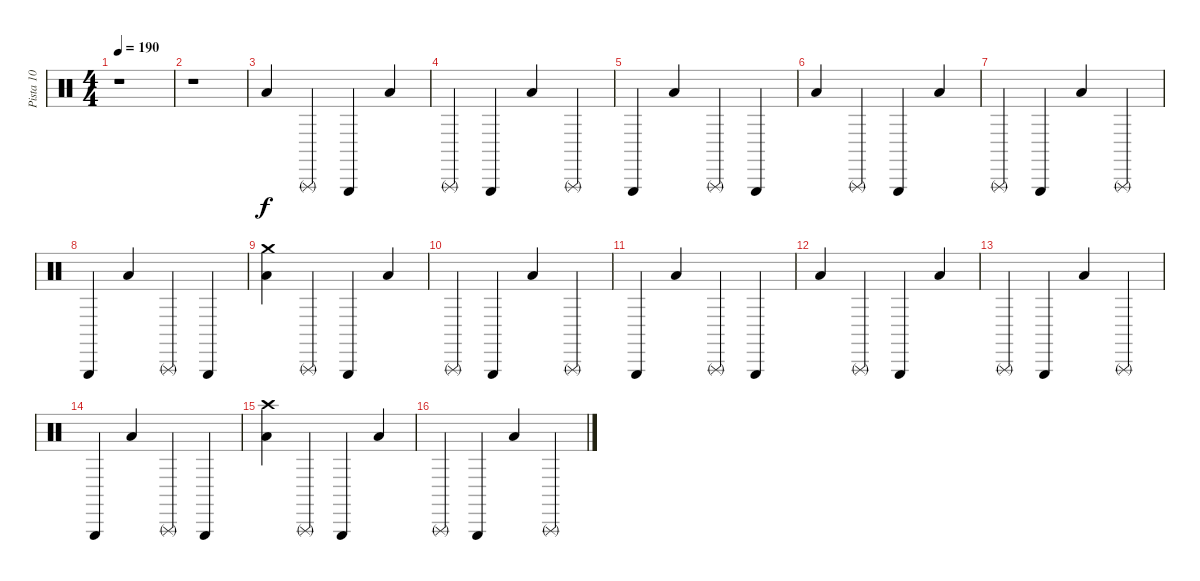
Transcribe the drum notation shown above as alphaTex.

\track ("Pista 10" "Pista 10") {instrument percussion}
\staff {score}
\articulation defaults
\ts (4 4)
\tempo 190
\clef neutral
\ks c
r.1{dy f} |
r.1 |
"Low Floor Tom (hit)".4 "Triangle (rnute)".4 "Triangle (hit)".4 "Low Floor Tom (hit)".4 |
"Triangle (rnute)".4 "Triangle (hit)".4 "Low Floor Tom (hit)".4 "Triangle (rnute)".4 |
"Triangle (hit)".4 "Low Floor Tom (hit)".4 "Triangle (rnute)".4 "Triangle (hit)".4 |
"Low Floor Tom (hit)".4 "Triangle (rnute)".4 "Triangle (hit)".4 "Low Floor Tom (hit)".4 |
"Triangle (rnute)".4 "Triangle (hit)".4 "Low Floor Tom (hit)".4 "Triangle (rnute)".4 |
"Triangle (hit)".4 "Low Floor Tom (hit)".4 "Triangle (rnute)".4 "Triangle (hit)".4 |
("Low Floor Tom (hit)" "Crash medium (hit)").4 "Triangle (rnute)".4 "Triangle (hit)".4 "Low Floor Tom (hit)".4 |
"Triangle (rnute)".4 "Triangle (hit)".4 "Low Floor Tom (hit)".4 "Triangle (rnute)".4 |
"Triangle (hit)".4 "Low Floor Tom (hit)".4 "Triangle (rnute)".4 "Triangle (hit)".4 |
"Low Floor Tom (hit)".4 "Triangle (rnute)".4 "Triangle (hit)".4 "Low Floor Tom (hit)".4 |
"Triangle (rnute)".4 "Triangle (hit)".4 "Low Floor Tom (hit)".4 "Triangle (rnute)".4 |
"Triangle (hit)".4 "Low Floor Tom (hit)".4 "Triangle (rnute)".4 "Triangle (hit)".4 |
("Low Floor Tom (hit)" "Crash high (hit)").4 "Triangle (rnute)".4 "Triangle (hit)".4 "Low Floor Tom (hit)".4 |
"Triangle (rnute)".4 "Triangle (hit)".4 "Low Floor Tom (hit)".4 "Triangle (rnute)".4
